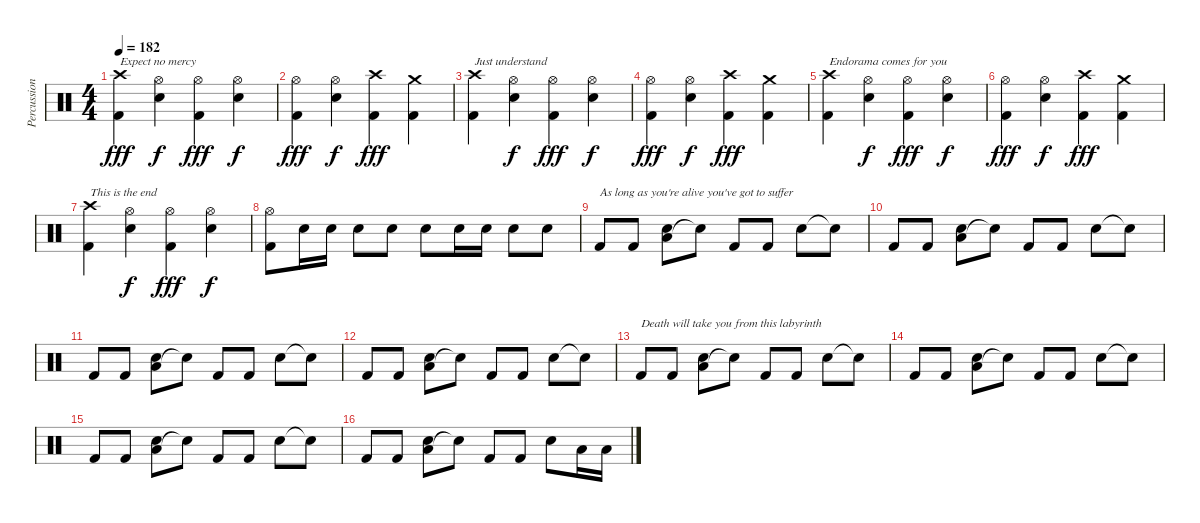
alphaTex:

\track ("Percussion" "Percussion") {instrument percussion}
\staff {score}
\articulation defaults
\ts (4 4)
\tempo 182
\clef neutral
\ks c
("Crash high (hit)" "Kick (hit) 2").4{txt "Expect no mercy" dy fff} ("Hi-Hat (open)" "Snare (hit) 2").4{dy f} ("Hi-Hat (open)" "Kick (hit) 2").4{dy fff} ("Hi-Hat (open)" "Snare (hit) 2").4{dy f} |
("Hi-Hat (open)" "Kick (hit) 2").4{dy fff} ("Hi-Hat (open)" "Snare (hit) 2").4{dy f} ("Crash high (hit)" "Kick (hit) 2").4{dy fff} ("Crash medium (hit)" "Kick (hit) 2").4 |
("Crash high (hit)" "Kick (hit) 2").4{txt "Just understand"} ("Hi-Hat (open)" "Snare (hit) 2").4{dy f} ("Hi-Hat (open)" "Kick (hit) 2").4{dy fff} ("Hi-Hat (open)" "Snare (hit) 2").4{dy f} |
("Hi-Hat (open)" "Kick (hit) 2").4{dy fff} ("Hi-Hat (open)" "Snare (hit) 2").4{dy f} ("Crash high (hit)" "Kick (hit) 2").4{dy fff} ("Crash medium (hit)" "Kick (hit) 2").4 |
("Crash high (hit)" "Kick (hit) 2").4{txt "Endorama comes for you"} ("Hi-Hat (open)" "Snare (hit) 2").4{dy f} ("Hi-Hat (open)" "Kick (hit) 2").4{dy fff} ("Hi-Hat (open)" "Snare (hit) 2").4{dy f} |
("Hi-Hat (open)" "Kick (hit) 2").4{dy fff} ("Hi-Hat (open)" "Snare (hit) 2").4{dy f} ("Crash high (hit)" "Kick (hit) 2").4{dy fff} ("Crash medium (hit)" "Kick (hit) 2").4 |
("Crash high (hit)" "Kick (hit) 2").4{txt "This is the end"} ("Hi-Hat (open)" "Snare (hit) 2").4{dy f} ("Hi-Hat (open)" "Kick (hit) 2").4{dy fff} ("Hi-Hat (open)" "Snare (hit) 2").4{dy f} |
("Hi-Hat (open)" "Kick (hit) 2").8 "Snare (hit) 2".16 "Snare (hit) 2".16 "Snare (hit) 2".8 "Snare (hit) 2".8 "Snare (hit) 2".8 "Snare (hit) 2".16 "Snare (hit) 2".16 "Snare (hit) 2".8 "Snare (hit) 2".8 |
"Kick (hit) 2".8{txt "As long as you're alive you've got to suffer"} "Kick (hit) 2".8 ("Low Floor Tom (hit)" "Snare (hit) 2").8 "Snare (hit)"{t}.8 "Kick (hit) 2".8 "Kick (hit) 2".8 "Snare (hit) 2".8 "Snare (hit)"{t}.8 |
"Kick (hit) 2".8 "Kick (hit) 2".8 ("Low Floor Tom (hit)" "Snare (hit) 2").8 "Snare (hit)"{t}.8 "Kick (hit) 2".8 "Kick (hit) 2".8 "Snare (hit) 2".8 "Snare (hit)"{t}.8 |
"Kick (hit) 2".8 "Kick (hit) 2".8 ("Low Floor Tom (hit)" "Snare (hit) 2").8 "Snare (hit)"{t}.8 "Kick (hit) 2".8 "Kick (hit) 2".8 "Snare (hit) 2".8 "Snare (hit)"{t}.8 |
"Kick (hit) 2".8 "Kick (hit) 2".8 ("Low Floor Tom (hit)" "Snare (hit) 2").8 "Snare (hit)"{t}.8 "Kick (hit) 2".8 "Kick (hit) 2".8 "Snare (hit) 2".8 "Snare (hit)"{t}.8 |
"Kick (hit) 2".8{txt "Death will take you from this labyrinth"} "Kick (hit) 2".8 ("Low Floor Tom (hit)" "Snare (hit) 2").8 "Snare (hit)"{t}.8 "Kick (hit) 2".8 "Kick (hit) 2".8 "Snare (hit) 2".8 "Snare (hit)"{t}.8 |
"Kick (hit) 2".8 "Kick (hit) 2".8 ("Low Floor Tom (hit)" "Snare (hit) 2").8 "Snare (hit)"{t}.8 "Kick (hit) 2".8 "Kick (hit) 2".8 "Snare (hit) 2".8 "Snare (hit)"{t}.8 |
"Kick (hit) 2".8 "Kick (hit) 2".8 ("Low Floor Tom (hit)" "Snare (hit) 2").8 "Snare (hit)"{t}.8 "Kick (hit) 2".8 "Kick (hit) 2".8 "Snare (hit) 2".8 "Snare (hit)"{t}.8 |
"Kick (hit) 2".8 "Kick (hit) 2".8 ("Low Floor Tom (hit)" "Snare (hit) 2").8 "Snare (hit)"{t}.8 "Kick (hit) 2".8 "Kick (hit) 2".8 "Snare (hit) 2".8 "Low Floor Tom (hit)".16 "Low Floor Tom (hit)".16
